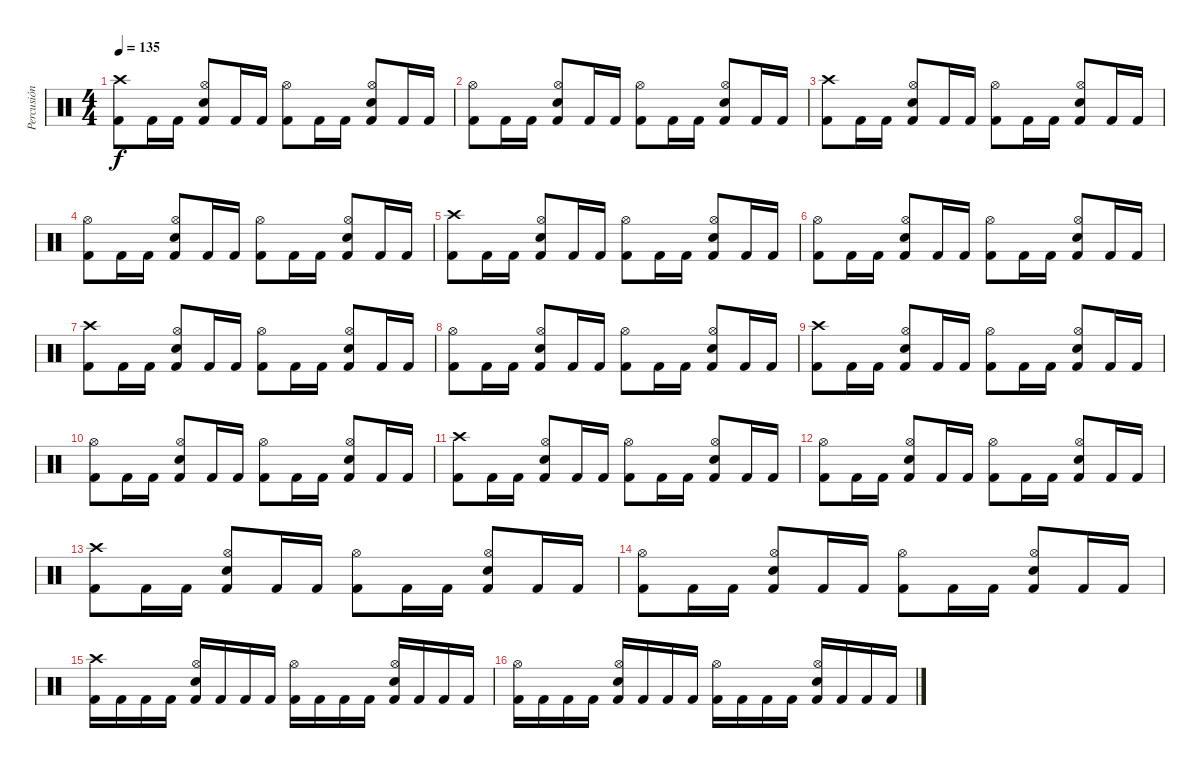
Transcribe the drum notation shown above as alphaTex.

\track ("Percusión" "Percusión") {instrument percussion}
\staff {score}
\articulation defaults
\ts (4 4)
\tempo 135
\clef neutral
\ks c
("Kick (hit) 2" "Crash high (hit)").8{dy f} "Kick (hit) 2".16 "Kick (hit) 2".16 ("Kick (hit) 2" "Hi-Hat (open)" "Snare (hit) 2").8 "Kick (hit) 2".16 "Kick (hit) 2".16 ("Kick (hit) 2" "Hi-Hat (open)").8 "Kick (hit) 2".16 "Kick (hit) 2".16 ("Kick (hit) 2" "Hi-Hat (open)" "Snare (hit) 2").8 "Kick (hit) 2".16 "Kick (hit) 2".16 |
("Kick (hit) 2" "Hi-Hat (open)").8 "Kick (hit) 2".16 "Kick (hit) 2".16 ("Kick (hit) 2" "Hi-Hat (open)" "Snare (hit) 2").8 "Kick (hit) 2".16 "Kick (hit) 2".16 ("Kick (hit) 2" "Hi-Hat (open)").8 "Kick (hit) 2".16 "Kick (hit) 2".16 ("Kick (hit) 2" "Hi-Hat (open)" "Snare (hit) 2").8 "Kick (hit) 2".16 "Kick (hit) 2".16 |
("Kick (hit) 2" "Crash high (hit)").8 "Kick (hit) 2".16 "Kick (hit) 2".16 ("Kick (hit) 2" "Hi-Hat (open)" "Snare (hit) 2").8 "Kick (hit) 2".16 "Kick (hit) 2".16 ("Kick (hit) 2" "Hi-Hat (open)").8 "Kick (hit) 2".16 "Kick (hit) 2".16 ("Kick (hit) 2" "Hi-Hat (open)" "Snare (hit) 2").8 "Kick (hit) 2".16 "Kick (hit) 2".16 |
("Kick (hit) 2" "Hi-Hat (open)").8 "Kick (hit) 2".16 "Kick (hit) 2".16 ("Kick (hit) 2" "Hi-Hat (open)" "Snare (hit) 2").8 "Kick (hit) 2".16 "Kick (hit) 2".16 ("Kick (hit) 2" "Hi-Hat (open)").8 "Kick (hit) 2".16 "Kick (hit) 2".16 ("Kick (hit) 2" "Hi-Hat (open)" "Snare (hit) 2").8 "Kick (hit) 2".16 "Kick (hit) 2".16 |
("Kick (hit) 2" "Crash high (hit)").8 "Kick (hit) 2".16 "Kick (hit) 2".16 ("Kick (hit) 2" "Hi-Hat (open)" "Snare (hit) 2").8 "Kick (hit) 2".16 "Kick (hit) 2".16 ("Kick (hit) 2" "Hi-Hat (open)").8 "Kick (hit) 2".16 "Kick (hit) 2".16 ("Kick (hit) 2" "Hi-Hat (open)" "Snare (hit) 2").8 "Kick (hit) 2".16 "Kick (hit) 2".16 |
("Kick (hit) 2" "Hi-Hat (open)").8 "Kick (hit) 2".16 "Kick (hit) 2".16 ("Kick (hit) 2" "Hi-Hat (open)" "Snare (hit) 2").8 "Kick (hit) 2".16 "Kick (hit) 2".16 ("Kick (hit) 2" "Hi-Hat (open)").8 "Kick (hit) 2".16 "Kick (hit) 2".16 ("Kick (hit) 2" "Hi-Hat (open)" "Snare (hit) 2").8 "Kick (hit) 2".16 "Kick (hit) 2".16 |
("Kick (hit) 2" "Crash high (hit)").8 "Kick (hit) 2".16 "Kick (hit) 2".16 ("Kick (hit) 2" "Hi-Hat (open)" "Snare (hit) 2").8 "Kick (hit) 2".16 "Kick (hit) 2".16 ("Kick (hit) 2" "Hi-Hat (open)").8 "Kick (hit) 2".16 "Kick (hit) 2".16 ("Kick (hit) 2" "Hi-Hat (open)" "Snare (hit) 2").8 "Kick (hit) 2".16 "Kick (hit) 2".16 |
("Kick (hit) 2" "Hi-Hat (open)").8 "Kick (hit) 2".16 "Kick (hit) 2".16 ("Kick (hit) 2" "Hi-Hat (open)" "Snare (hit) 2").8 "Kick (hit) 2".16 "Kick (hit) 2".16 ("Kick (hit) 2" "Hi-Hat (open)").8 "Kick (hit) 2".16 "Kick (hit) 2".16 ("Kick (hit) 2" "Hi-Hat (open)" "Snare (hit) 2").8 "Kick (hit) 2".16 "Kick (hit) 2".16 |
("Kick (hit) 2" "Crash high (hit)").8 "Kick (hit) 2".16 "Kick (hit) 2".16 ("Kick (hit) 2" "Hi-Hat (open)" "Snare (hit) 2").8 "Kick (hit) 2".16 "Kick (hit) 2".16 ("Kick (hit) 2" "Hi-Hat (open)").8 "Kick (hit) 2".16 "Kick (hit) 2".16 ("Kick (hit) 2" "Hi-Hat (open)" "Snare (hit) 2").8 "Kick (hit) 2".16 "Kick (hit) 2".16 |
("Kick (hit) 2" "Hi-Hat (open)").8 "Kick (hit) 2".16 "Kick (hit) 2".16 ("Kick (hit) 2" "Hi-Hat (open)" "Snare (hit) 2").8 "Kick (hit) 2".16 "Kick (hit) 2".16 ("Kick (hit) 2" "Hi-Hat (open)").8 "Kick (hit) 2".16 "Kick (hit) 2".16 ("Kick (hit) 2" "Hi-Hat (open)" "Snare (hit) 2").8 "Kick (hit) 2".16 "Kick (hit) 2".16 |
("Kick (hit) 2" "Crash high (hit)").8 "Kick (hit) 2".16 "Kick (hit) 2".16 ("Kick (hit) 2" "Hi-Hat (open)" "Snare (hit) 2").8 "Kick (hit) 2".16 "Kick (hit) 2".16 ("Kick (hit) 2" "Hi-Hat (open)").8 "Kick (hit) 2".16 "Kick (hit) 2".16 ("Kick (hit) 2" "Hi-Hat (open)" "Snare (hit) 2").8 "Kick (hit) 2".16 "Kick (hit) 2".16 |
("Kick (hit) 2" "Hi-Hat (open)").8 "Kick (hit) 2".16 "Kick (hit) 2".16 ("Kick (hit) 2" "Hi-Hat (open)" "Snare (hit) 2").8 "Kick (hit) 2".16 "Kick (hit) 2".16 ("Kick (hit) 2" "Hi-Hat (open)").8 "Kick (hit) 2".16 "Kick (hit) 2".16 ("Kick (hit) 2" "Hi-Hat (open)" "Snare (hit) 2").8 "Kick (hit) 2".16 "Kick (hit) 2".16 |
("Kick (hit) 2" "Crash high (hit)").8 "Kick (hit) 2".16 "Kick (hit) 2".16 ("Kick (hit) 2" "Hi-Hat (open)" "Snare (hit) 2").8 "Kick (hit) 2".16 "Kick (hit) 2".16 ("Kick (hit) 2" "Hi-Hat (open)").8 "Kick (hit) 2".16 "Kick (hit) 2".16 ("Kick (hit) 2" "Hi-Hat (open)" "Snare (hit) 2").8 "Kick (hit) 2".16 "Kick (hit) 2".16 |
("Kick (hit) 2" "Hi-Hat (open)").8 "Kick (hit) 2".16 "Kick (hit) 2".16 ("Kick (hit) 2" "Hi-Hat (open)" "Snare (hit) 2").8 "Kick (hit) 2".16 "Kick (hit) 2".16 ("Kick (hit) 2" "Hi-Hat (open)").8 "Kick (hit) 2".16 "Kick (hit) 2".16 ("Kick (hit) 2" "Hi-Hat (open)" "Snare (hit) 2").8 "Kick (hit) 2".16 "Kick (hit) 2".16 |
("Kick (hit) 2" "Crash high (hit)").16 "Kick (hit) 2".16 "Kick (hit) 2".16 "Kick (hit) 2".16 ("Kick (hit) 2" "Hi-Hat (open)" "Snare (hit) 2").16 "Kick (hit) 2".16 "Kick (hit) 2".16 "Kick (hit) 2".16 ("Kick (hit) 2" "Hi-Hat (open)").16 "Kick (hit) 2".16 "Kick (hit) 2".16 "Kick (hit) 2".16 ("Kick (hit) 2" "Hi-Hat (open)" "Snare (hit) 2").16 "Kick (hit) 2".16 "Kick (hit) 2".16 "Kick (hit) 2".16 |
("Kick (hit) 2" "Hi-Hat (open)").16 "Kick (hit) 2".16 "Kick (hit) 2".16 "Kick (hit) 2".16 ("Kick (hit) 2" "Hi-Hat (open)" "Snare (hit) 2").16 "Kick (hit) 2".16 "Kick (hit) 2".16 "Kick (hit) 2".16 ("Kick (hit) 2" "Hi-Hat (open)").16 "Kick (hit) 2".16 "Kick (hit) 2".16 "Kick (hit) 2".16 ("Kick (hit) 2" "Hi-Hat (open)" "Snare (hit) 2").16 "Kick (hit) 2".16 "Kick (hit) 2".16 "Kick (hit) 2".16
